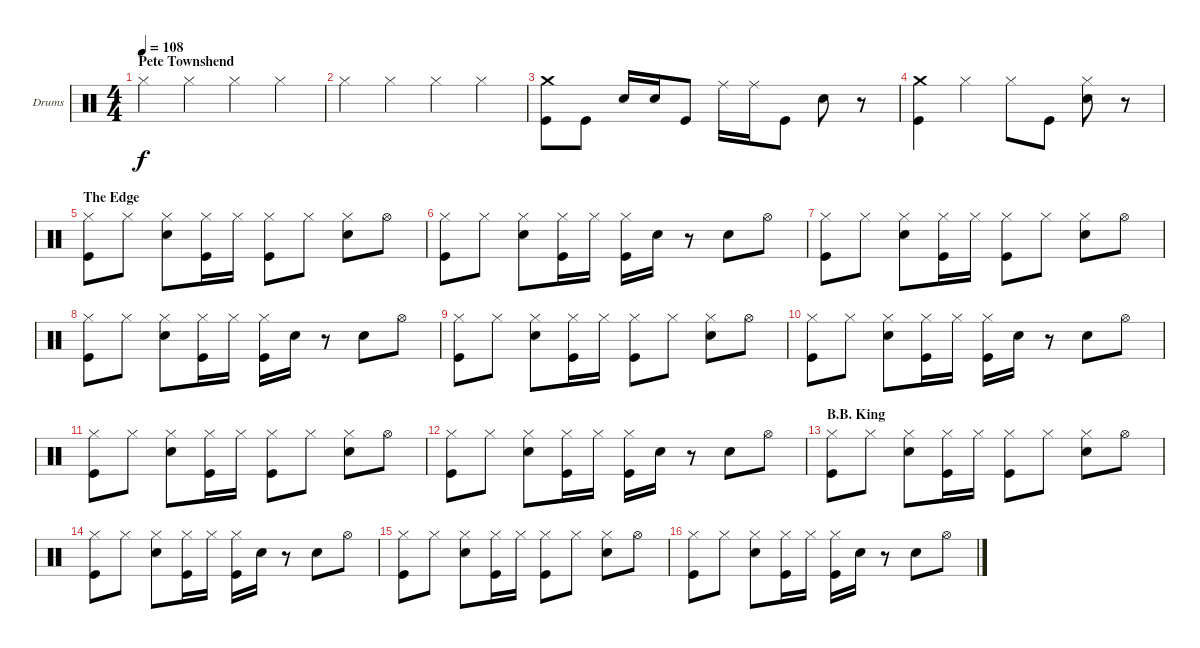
\defaultSystemsLayout 4
\bracketExtendMode groupsimilarinstruments
\firstSystemTrackNameOrientation horizontal
\otherSystemsTrackNameOrientation horizontal
\track ("Drumkit" "Drums") {instrument percussion}
\staff {score}
\articulation defaults
\ts (4 4)
\section ("" "Pete Townshend")
\tempo 108
\clef neutral
\ks c "Hi-Hat (closed)".4{dy f} "Hi-Hat (closed)".4 "Hi-Hat (closed)".4 "Hi-Hat (closed)".4
|
"Hi-Hat (closed)".4 "Hi-Hat (closed)".4 "Hi-Hat (closed)".4 "Hi-Hat (closed)".4 |
("Kick (hit)" "Crash medium (hit)").8 "Kick (hit)".8 "Snare (hit) 2".16 "Snare (hit) 2".16 "Kick (hit)".8 "Ride (middle)".16 "Ride (middle)".16 "Kick (hit)".8 "Snare (hit) 2".8 r.8 |
("Crash medium (hit)" "Kick (hit)").4 "Hi-Hat (closed)".4 "Hi-Hat (closed)".8 "Kick (hit)".8 ("Hi-Hat (closed)" "Snare (hit) 2").8 r.8 |
\section ("" "The Edge")
("Hi-Hat (closed)" "Kick (hit)").8 "Hi-Hat (closed)".8 ("Hi-Hat (closed)" "Snare (hit) 2").8 ("Hi-Hat (closed)" "Kick (hit)").16 "Hi-Hat (closed)".16 ("Hi-Hat (closed)" "Kick (hit)").8 "Hi-Hat (closed)".8 ("Hi-Hat (closed)" "Snare (hit) 2").8 "Hi-Hat (open)".8 |
("Hi-Hat (closed)" "Kick (hit)").8 "Hi-Hat (closed)".8 ("Hi-Hat (closed)" "Snare (hit) 2").8 ("Hi-Hat (closed)" "Kick (hit)").16 "Hi-Hat (closed)".16 ("Hi-Hat (closed)" "Kick (hit)").16 "Snare (hit) 2".16 r.8 "Snare (hit) 2".8 "Hi-Hat (open)".8 |
("Hi-Hat (closed)" "Kick (hit)").8 "Hi-Hat (closed)".8 ("Hi-Hat (closed)" "Snare (hit) 2").8 ("Hi-Hat (closed)" "Kick (hit)").16 "Hi-Hat (closed)".16 ("Hi-Hat (closed)" "Kick (hit)").8 "Hi-Hat (closed)".8 ("Hi-Hat (closed)" "Snare (hit) 2").8 "Hi-Hat (open)".8 |
("Hi-Hat (closed)" "Kick (hit)").8 "Hi-Hat (closed)".8 ("Hi-Hat (closed)" "Snare (hit) 2").8 ("Hi-Hat (closed)" "Kick (hit)").16 "Hi-Hat (closed)".16 ("Hi-Hat (closed)" "Kick (hit)").16 "Snare (hit) 2".16 r.8 "Snare (hit) 2".8 "Hi-Hat (open)".8 |
("Hi-Hat (closed)" "Kick (hit)").8 "Hi-Hat (closed)".8 ("Hi-Hat (closed)" "Snare (hit) 2").8 ("Hi-Hat (closed)" "Kick (hit)").16 "Hi-Hat (closed)".16 ("Hi-Hat (closed)" "Kick (hit)").8 "Hi-Hat (closed)".8 ("Hi-Hat (closed)" "Snare (hit) 2").8 "Hi-Hat (open)".8 |
("Hi-Hat (closed)" "Kick (hit)").8 "Hi-Hat (closed)".8 ("Hi-Hat (closed)" "Snare (hit) 2").8 ("Hi-Hat (closed)" "Kick (hit)").16 "Hi-Hat (closed)".16 ("Hi-Hat (closed)" "Kick (hit)").16 "Snare (hit) 2".16 r.8 "Snare (hit) 2".8 "Hi-Hat (open)".8 |
("Hi-Hat (closed)" "Kick (hit)").8 "Hi-Hat (closed)".8 ("Hi-Hat (closed)" "Snare (hit) 2").8 ("Hi-Hat (closed)" "Kick (hit)").16 "Hi-Hat (closed)".16 ("Hi-Hat (closed)" "Kick (hit)").8 "Hi-Hat (closed)".8 ("Hi-Hat (closed)" "Snare (hit) 2").8 "Hi-Hat (open)".8 |
("Hi-Hat (closed)" "Kick (hit)").8 "Hi-Hat (closed)".8 ("Hi-Hat (closed)" "Snare (hit) 2").8 ("Hi-Hat (closed)" "Kick (hit)").16 "Hi-Hat (closed)".16 ("Hi-Hat (closed)" "Kick (hit)").16 "Snare (hit) 2".16 r.8 "Snare (hit) 2".8 "Hi-Hat (open)".8 |
\section ("" "B.B. King")
("Hi-Hat (closed)" "Kick (hit)").8 "Hi-Hat (closed)".8 ("Hi-Hat (closed)" "Snare (hit) 2").8 ("Hi-Hat (closed)" "Kick (hit)").16 "Hi-Hat (closed)".16 ("Hi-Hat (closed)" "Kick (hit)").8 "Hi-Hat (closed)".8 ("Hi-Hat (closed)" "Snare (hit) 2").8 "Hi-Hat (open)".8 |
("Hi-Hat (closed)" "Kick (hit)").8 "Hi-Hat (closed)".8 ("Hi-Hat (closed)" "Snare (hit) 2").8 ("Hi-Hat (closed)" "Kick (hit)").16 "Hi-Hat (closed)".16 ("Hi-Hat (closed)" "Kick (hit)").16 "Snare (hit) 2".16 r.8 "Snare (hit) 2".8 "Hi-Hat (open)".8 |
("Hi-Hat (closed)" "Kick (hit)").8 "Hi-Hat (closed)".8 ("Hi-Hat (closed)" "Snare (hit) 2").8 ("Hi-Hat (closed)" "Kick (hit)").16 "Hi-Hat (closed)".16 ("Hi-Hat (closed)" "Kick (hit)").8 "Hi-Hat (closed)".8 ("Hi-Hat (closed)" "Snare (hit) 2").8 "Hi-Hat (open)".8 |
("Hi-Hat (closed)" "Kick (hit)").8 "Hi-Hat (closed)".8 ("Hi-Hat (closed)" "Snare (hit) 2").8 ("Hi-Hat (closed)" "Kick (hit)").16 "Hi-Hat (closed)".16 ("Hi-Hat (closed)" "Kick (hit)").16 "Snare (hit) 2".16 r.8 "Snare (hit) 2".8 "Hi-Hat (open)".8
